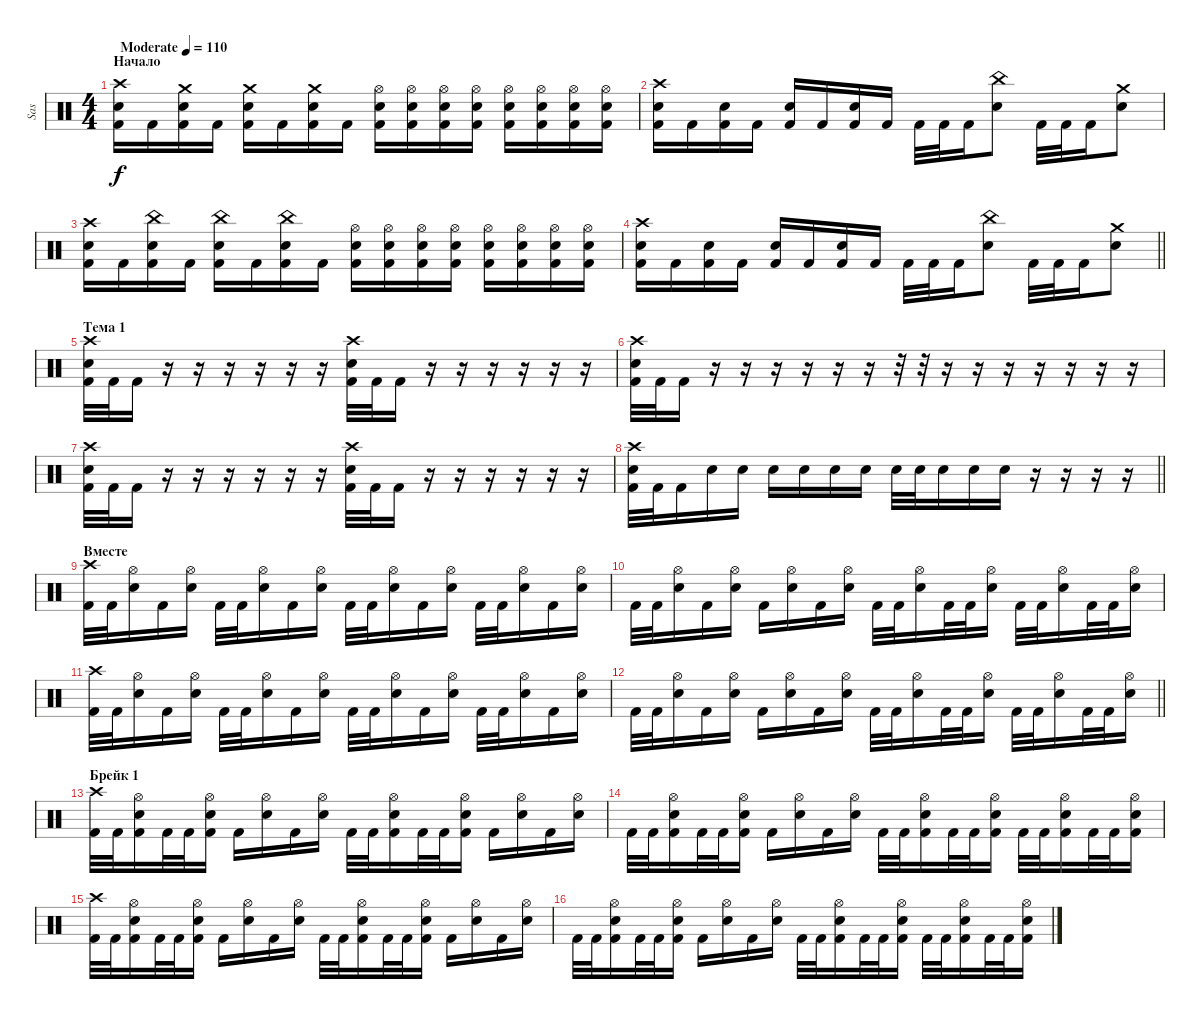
\track ("Sas" "Sas") {instrument percussion}
\staff {score}
\articulation defaults
\ts (4 4)
\section ("" "Начало")
\tempo (110 "Moderate")
\clef neutral
\ks c
("Crash high (hit)" "Snare (hit) 2" "Kick (hit) 2").16{dy f} "Kick (hit) 2".16 ("Crash medium (hit)" "Snare (hit) 2" "Kick (hit) 2").16 "Kick (hit) 2".16 ("Crash medium (hit)" "Snare (hit) 2" "Kick (hit) 2").16 "Kick (hit) 2".16 ("Crash medium (hit)" "Snare (hit) 2" "Kick (hit) 2").16 "Kick (hit) 2".16 ("Hi-Hat (open)" "Snare (hit) 2" "Kick (hit) 2").16 ("Hi-Hat (open)" "Snare (hit) 2" "Kick (hit) 2").16 ("Hi-Hat (open)" "Snare (hit) 2" "Kick (hit) 2").16 ("Hi-Hat (open)" "Snare (hit) 2" "Kick (hit) 2").16 ("Hi-Hat (open)" "Snare (hit) 2" "Kick (hit) 2").16 ("Hi-Hat (open)" "Snare (hit) 2" "Kick (hit) 2").16 ("Hi-Hat (open)" "Snare (hit) 2" "Kick (hit) 2").16 ("Hi-Hat (open)" "Snare (hit) 2" "Kick (hit) 2").16 |
("Crash high (hit)" "Snare (hit) 2" "Kick (hit) 2").16 "Kick (hit) 2".16 ("Snare (hit) 2" "Kick (hit) 2").16 "Kick (hit) 2".16 ("Snare (hit) 2" "Kick (hit) 2").16 "Kick (hit) 2".16 ("Snare (hit) 2" "Kick (hit) 2").16 "Kick (hit) 2".16 "Kick (hit) 2".32 "Kick (hit) 2".32 "Kick (hit) 2".16 ("China (hit)" "Snare (hit) 2").8 "Kick (hit) 2".32 "Kick (hit) 2".32 "Kick (hit) 2".16 ("Crash medium (hit)" "Snare (hit) 2").8 |
("Crash high (hit)" "Snare (hit) 2" "Kick (hit) 2").16 "Kick (hit) 2".16 ("China (hit)" "Snare (hit) 2" "Kick (hit) 2").16 "Kick (hit) 2".16 ("China (hit)" "Snare (hit) 2" "Kick (hit) 2").16 "Kick (hit) 2".16 ("China (hit)" "Snare (hit) 2" "Kick (hit) 2").16 "Kick (hit) 2".16 ("Hi-Hat (open)" "Snare (hit) 2" "Kick (hit) 2").16 ("Hi-Hat (open)" "Snare (hit) 2" "Kick (hit) 2").16 ("Hi-Hat (open)" "Snare (hit) 2" "Kick (hit) 2").16 ("Hi-Hat (open)" "Snare (hit) 2" "Kick (hit) 2").16 ("Hi-Hat (open)" "Snare (hit) 2" "Kick (hit) 2").16 ("Hi-Hat (open)" "Snare (hit) 2" "Kick (hit) 2").16 ("Hi-Hat (open)" "Snare (hit) 2" "Kick (hit) 2").16 ("Hi-Hat (open)" "Snare (hit) 2" "Kick (hit) 2").16 |
\barLineRight lightlight
("Crash high (hit)" "Snare (hit) 2" "Kick (hit) 2").16 "Kick (hit) 2".16 ("Snare (hit) 2" "Kick (hit) 2").16 "Kick (hit) 2".16 ("Snare (hit) 2" "Kick (hit) 2").16 "Kick (hit) 2".16 ("Snare (hit) 2" "Kick (hit) 2").16 "Kick (hit) 2".16 "Kick (hit) 2".32 "Kick (hit) 2".32 "Kick (hit) 2".16 ("China (hit)" "Snare (hit) 2").8 "Kick (hit) 2".32 "Kick (hit) 2".32 "Kick (hit) 2".16 ("Crash medium (hit)" "Snare (hit) 2").8 |
\section ("" "Тема 1")
("Crash high (hit)" "Snare (hit) 2" "Kick (hit) 2").32 "Kick (hit) 2".32 "Kick (hit) 2".16 r.16 r.16 r.16 r.16 r.16 r.16 ("Crash high (hit)" "Snare (hit) 2" "Kick (hit) 2").32 "Kick (hit) 2".32 "Kick (hit) 2".16 r.16 r.16 r.16 r.16 r.16 r.16 |
("Crash high (hit)" "Snare (hit) 2" "Kick (hit) 2").32 "Kick (hit) 2".32 "Kick (hit) 2".16 r.16 r.16 r.16 r.16 r.16 r.16 r.32 r.32 r.16 r.16 r.16 r.16 r.16 r.16 r.16 |
("Crash high (hit)" "Snare (hit) 2" "Kick (hit) 2").32 "Kick (hit) 2".32 "Kick (hit) 2".16 r.16 r.16 r.16 r.16 r.16 r.16 ("Crash high (hit)" "Snare (hit) 2" "Kick (hit) 2").32 "Kick (hit) 2".32 "Kick (hit) 2".16 r.16 r.16 r.16 r.16 r.16 r.16 |
\barLineRight lightlight
("Crash high (hit)" "Snare (hit) 2" "Kick (hit) 2").32 "Kick (hit) 2".32 "Kick (hit) 2".16 "Snare (hit) 2".16 "Snare (hit) 2".16 "Snare (hit) 2".16 "Snare (hit) 2".16 "Snare (hit) 2".16 "Snare (hit) 2".16 "Snare (hit) 2".32 "Snare (hit) 2".32 "Snare (hit) 2".16 "Snare (hit) 2".16 "Snare (hit) 2".16 r.16 r.16 r.16 r.16 |
\section ("" "Вместе")
("Crash high (hit)" "Kick (hit) 2").32 "Kick (hit) 2".32 ("Hi-Hat (open)" "Snare (hit) 2").16 "Kick (hit) 2".16 ("Hi-Hat (open)" "Snare (hit) 2").16 "Kick (hit) 2".32 "Kick (hit) 2".32 ("Hi-Hat (open)" "Snare (hit) 2").16 "Kick (hit) 2".16 ("Hi-Hat (open)" "Snare (hit) 2").16 "Kick (hit) 2".32 "Kick (hit) 2".32 ("Hi-Hat (open)" "Snare (hit) 2").16 "Kick (hit) 2".16 ("Hi-Hat (open)" "Snare (hit) 2").16 "Kick (hit) 2".32 "Kick (hit) 2".32 ("Hi-Hat (open)" "Snare (hit) 2").16 "Kick (hit) 2".16 ("Hi-Hat (open)" "Snare (hit) 2").16 |
"Kick (hit) 2".32 "Kick (hit) 2".32 ("Hi-Hat (open)" "Snare (hit) 2").16 "Kick (hit) 2".16 ("Hi-Hat (open)" "Snare (hit) 2").16 "Kick (hit) 2".16 ("Hi-Hat (open)" "Snare (hit) 2").16 "Kick (hit) 2".16 ("Hi-Hat (open)" "Snare (hit) 2").16 "Kick (hit) 2".32 "Kick (hit) 2".32 ("Hi-Hat (open)" "Snare (hit) 2").16 "Kick (hit) 2".32 "Kick (hit) 2".32 ("Hi-Hat (open)" "Snare (hit) 2").16 "Kick (hit) 2".32 "Kick (hit) 2".32 ("Hi-Hat (open)" "Snare (hit) 2").16 "Kick (hit) 2".32 "Kick (hit) 2".32 ("Hi-Hat (open)" "Snare (hit) 2").16 |
("Crash high (hit)" "Kick (hit) 2").32 "Kick (hit) 2".32 ("Hi-Hat (open)" "Snare (hit) 2").16 "Kick (hit) 2".16 ("Hi-Hat (open)" "Snare (hit) 2").16 "Kick (hit) 2".32 "Kick (hit) 2".32 ("Hi-Hat (open)" "Snare (hit) 2").16 "Kick (hit) 2".16 ("Hi-Hat (open)" "Snare (hit) 2").16 "Kick (hit) 2".32 "Kick (hit) 2".32 ("Hi-Hat (open)" "Snare (hit) 2").16 "Kick (hit) 2".16 ("Hi-Hat (open)" "Snare (hit) 2").16 "Kick (hit) 2".32 "Kick (hit) 2".32 ("Hi-Hat (open)" "Snare (hit) 2").16 "Kick (hit) 2".16 ("Hi-Hat (open)" "Snare (hit) 2").16 |
\barLineRight lightlight "Kick (hit) 2".32 "Kick (hit) 2".32
("Hi-Hat (open)" "Snare (hit) 2").16 "Kick (hit) 2".16 ("Hi-Hat (open)" "Snare (hit) 2").16 "Kick (hit) 2".16 ("Hi-Hat (open)" "Snare (hit) 2").16 "Kick (hit) 2".16 ("Hi-Hat (open)" "Snare (hit) 2").16 "Kick (hit) 2".32 "Kick (hit) 2".32 ("Hi-Hat (open)" "Snare (hit) 2").16 "Kick (hit) 2".32 "Kick (hit) 2".32 ("Hi-Hat (open)" "Snare (hit) 2").16 "Kick (hit) 2".32 "Kick (hit) 2".32 ("Hi-Hat (open)" "Snare (hit) 2").16 "Kick (hit) 2".32 "Kick (hit) 2".32 ("Hi-Hat (open)" "Snare (hit) 2").16 |
\section ("" "Брейк 1")
("Crash high (hit)" "Kick (hit) 2").32 "Kick (hit) 2".32 ("Hi-Hat (open)" "Snare (hit) 2" "Kick (hit) 2").16 "Kick (hit) 2".32 "Kick (hit) 2".32 ("Hi-Hat (open)" "Snare (hit) 2" "Kick (hit) 2").16 "Kick (hit) 2".16 ("Hi-Hat (open)" "Snare (hit) 2").16 "Kick (hit) 2".16 ("Hi-Hat (open)" "Snare (hit) 2").16 "Kick (hit) 2".32 "Kick (hit) 2".32 ("Hi-Hat (open)" "Snare (hit) 2" "Kick (hit) 2").16 "Kick (hit) 2".32 "Kick (hit) 2".32 ("Hi-Hat (open)" "Snare (hit) 2" "Kick (hit) 2").16 "Kick (hit) 2".16 ("Hi-Hat (open)" "Snare (hit) 2").16 "Kick (hit) 2".16 ("Hi-Hat (open)" "Snare (hit) 2").16 |
"Kick (hit) 2".32 "Kick (hit) 2".32 ("Hi-Hat (open)" "Snare (hit) 2" "Kick (hit) 2").16 "Kick (hit) 2".32 "Kick (hit) 2".32 ("Hi-Hat (open)" "Snare (hit) 2" "Kick (hit) 2").16 "Kick (hit) 2".16 ("Hi-Hat (open)" "Snare (hit) 2").16 "Kick (hit) 2".16 ("Hi-Hat (open)" "Snare (hit) 2").16 "Kick (hit) 2".32 "Kick (hit) 2".32 ("Hi-Hat (open)" "Snare (hit) 2" "Kick (hit) 2").16 "Kick (hit) 2".32 "Kick (hit) 2".32 ("Hi-Hat (open)" "Snare (hit) 2" "Kick (hit) 2").16 "Kick (hit) 2".32 "Kick (hit) 2".32 ("Hi-Hat (open)" "Snare (hit) 2" "Kick (hit) 2").16 "Kick (hit) 2".32 "Kick (hit) 2".32 ("Hi-Hat (open)" "Snare (hit) 2" "Kick (hit) 2").16 |
("Crash high (hit)" "Kick (hit) 2").32 "Kick (hit) 2".32 ("Hi-Hat (open)" "Snare (hit) 2" "Kick (hit) 2").16 "Kick (hit) 2".32 "Kick (hit) 2".32 ("Hi-Hat (open)" "Snare (hit) 2" "Kick (hit) 2").16 "Kick (hit) 2".16 ("Hi-Hat (open)" "Snare (hit) 2").16 "Kick (hit) 2".16 ("Hi-Hat (open)" "Snare (hit) 2").16 "Kick (hit) 2".32 "Kick (hit) 2".32 ("Hi-Hat (open)" "Snare (hit) 2" "Kick (hit) 2").16 "Kick (hit) 2".32 "Kick (hit) 2".32 ("Hi-Hat (open)" "Snare (hit) 2" "Kick (hit) 2").16 "Kick (hit) 2".16 ("Hi-Hat (open)" "Snare (hit) 2").16 "Kick (hit) 2".16 ("Hi-Hat (open)" "Snare (hit) 2").16 |
"Kick (hit) 2".32 "Kick (hit) 2".32 ("Hi-Hat (open)" "Snare (hit) 2" "Kick (hit) 2").16 "Kick (hit) 2".32 "Kick (hit) 2".32 ("Hi-Hat (open)" "Snare (hit) 2" "Kick (hit) 2").16 "Kick (hit) 2".16 ("Hi-Hat (open)" "Snare (hit) 2").16 "Kick (hit) 2".16 ("Hi-Hat (open)" "Snare (hit) 2").16 "Kick (hit) 2".32 "Kick (hit) 2".32 ("Hi-Hat (open)" "Snare (hit) 2" "Kick (hit) 2").16 "Kick (hit) 2".32 "Kick (hit) 2".32 ("Hi-Hat (open)" "Snare (hit) 2" "Kick (hit) 2").16 "Kick (hit) 2".32 "Kick (hit) 2".32 ("Hi-Hat (open)" "Snare (hit) 2" "Kick (hit) 2").16 "Kick (hit) 2".32 "Kick (hit) 2".32 ("Hi-Hat (open)" "Snare (hit) 2" "Kick (hit) 2").16
